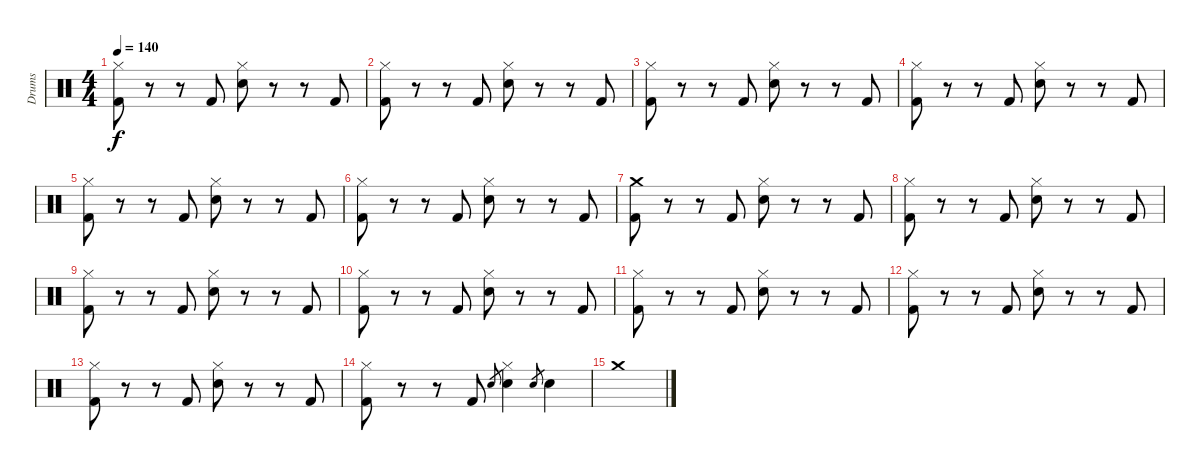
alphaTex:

\track ("Drums" "Drums") {instrument percussion}
\staff {score}
\articulation defaults
\ts (4 4)
\tempo 140
\clef neutral
\ks c
("Hi-Hat (closed)" "Kick (hit) 2").8{dy f} r.8 r.8 "Kick (hit) 2".8 ("Hi-Hat (closed)" "Snare (hit) 2").8 r.8 r.8 "Kick (hit) 2".8 |
("Hi-Hat (closed)" "Kick (hit) 2").8 r.8 r.8 "Kick (hit) 2".8 ("Hi-Hat (closed)" "Snare (hit) 2").8 r.8 r.8 "Kick (hit) 2".8 |
("Hi-Hat (closed)" "Kick (hit) 2").8 r.8 r.8 "Kick (hit) 2".8 ("Hi-Hat (closed)" "Snare (hit) 2").8 r.8 r.8 "Kick (hit) 2".8 |
("Hi-Hat (closed)" "Kick (hit) 2").8 r.8 r.8 "Kick (hit) 2".8 ("Hi-Hat (closed)" "Snare (hit) 2").8 r.8 r.8 "Kick (hit) 2".8 |
("Hi-Hat (closed)" "Kick (hit) 2").8 r.8 r.8 "Kick (hit) 2".8 ("Hi-Hat (closed)" "Snare (hit) 2").8 r.8 r.8 "Kick (hit) 2".8 |
("Hi-Hat (closed)" "Kick (hit) 2").8 r.8 r.8 "Kick (hit) 2".8 ("Hi-Hat (closed)" "Snare (hit) 2").8 r.8 r.8 "Kick (hit) 2".8 |
("Crash medium (hit)" "Kick (hit) 2").8 r.8 r.8 "Kick (hit) 2".8 ("Hi-Hat (closed)" "Snare (hit) 2").8 r.8 r.8 "Kick (hit) 2".8 |
("Hi-Hat (closed)" "Kick (hit) 2").8 r.8 r.8 "Kick (hit) 2".8 ("Hi-Hat (closed)" "Snare (hit) 2").8 r.8 r.8 "Kick (hit) 2".8 |
("Hi-Hat (closed)" "Kick (hit) 2").8 r.8 r.8 "Kick (hit) 2".8 ("Hi-Hat (closed)" "Snare (hit) 2").8 r.8 r.8 "Kick (hit) 2".8 |
("Hi-Hat (closed)" "Kick (hit) 2").8 r.8 r.8 "Kick (hit) 2".8 ("Hi-Hat (closed)" "Snare (hit) 2").8 r.8 r.8 "Kick (hit) 2".8 |
("Hi-Hat (closed)" "Kick (hit) 2").8 r.8 r.8 "Kick (hit) 2".8 ("Hi-Hat (closed)" "Snare (hit) 2").8 r.8 r.8 "Kick (hit) 2".8 |
("Hi-Hat (closed)" "Kick (hit) 2").8 r.8 r.8 "Kick (hit) 2".8 ("Hi-Hat (closed)" "Snare (hit) 2").8 r.8 r.8 "Kick (hit) 2".8 |
("Hi-Hat (closed)" "Kick (hit) 2").8 r.8 r.8 "Kick (hit) 2".8 ("Hi-Hat (closed)" "Snare (hit) 2").8 r.8 r.8 "Kick (hit) 2".8 |
("Hi-Hat (closed)" "Kick (hit) 2").8 r.8 r.8 "Kick (hit) 2".8 "Electric Snare (hit)".8{gr} ("Hi-Hat (closed)" "Electric Snare (hit)").4 "Electric Snare (hit)".8{gr} "Electric Snare (hit)".4 |
"Crash medium (hit)".1
